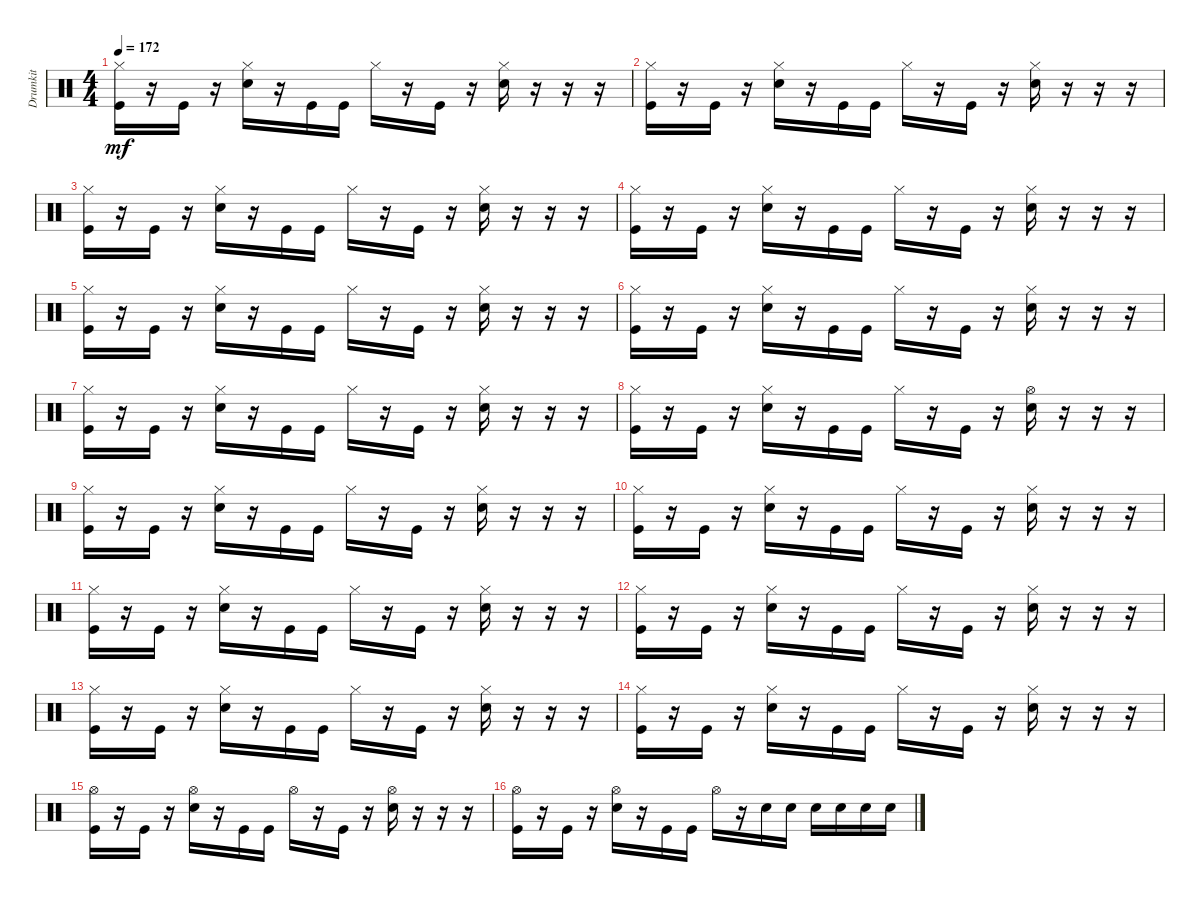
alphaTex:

\track ("Drumkit" "Drumkit") {instrument percussion}
\staff {score}
\articulation defaults
\ts (4 4)
\tempo 172
\clef neutral
\ks c
("Hi-Hat (closed)" "Kick (hit)").16{dy mf} r.16 "Kick (hit)".16 r.16 ("Hi-Hat (closed)" "Snare (hit) 2").16 r.16 "Kick (hit)".16 "Kick (hit)".16 "Hi-Hat (closed)".16 r.16 "Kick (hit)".16 r.16 ("Hi-Hat (closed)" "Snare (hit) 2").16 r.16 r.16 r.16 |
("Hi-Hat (closed)" "Kick (hit)").16 r.16 "Kick (hit)".16 r.16 ("Hi-Hat (closed)" "Snare (hit) 2").16 r.16 "Kick (hit)".16 "Kick (hit)".16 "Hi-Hat (closed)".16 r.16 "Kick (hit)".16 r.16 ("Hi-Hat (closed)" "Snare (hit) 2").16 r.16 r.16 r.16 |
("Hi-Hat (closed)" "Kick (hit)").16 r.16 "Kick (hit)".16 r.16 ("Hi-Hat (closed)" "Snare (hit) 2").16 r.16 "Kick (hit)".16 "Kick (hit)".16 "Hi-Hat (closed)".16 r.16 "Kick (hit)".16 r.16 ("Hi-Hat (closed)" "Snare (hit) 2").16 r.16 r.16 r.16 |
("Hi-Hat (closed)" "Kick (hit)").16 r.16 "Kick (hit)".16 r.16 ("Hi-Hat (closed)" "Snare (hit) 2").16 r.16 "Kick (hit)".16 "Kick (hit)".16 "Hi-Hat (closed)".16 r.16 "Kick (hit)".16 r.16 ("Hi-Hat (closed)" "Snare (hit) 2").16 r.16 r.16 r.16 |
("Hi-Hat (closed)" "Kick (hit)").16 r.16 "Kick (hit)".16 r.16 ("Hi-Hat (closed)" "Snare (hit) 2").16 r.16 "Kick (hit)".16 "Kick (hit)".16 "Hi-Hat (closed)".16 r.16 "Kick (hit)".16 r.16 ("Hi-Hat (closed)" "Snare (hit) 2").16 r.16 r.16 r.16 |
("Hi-Hat (closed)" "Kick (hit)").16 r.16 "Kick (hit)".16 r.16 ("Hi-Hat (closed)" "Snare (hit) 2").16 r.16 "Kick (hit)".16 "Kick (hit)".16 "Hi-Hat (closed)".16 r.16 "Kick (hit)".16 r.16 ("Hi-Hat (closed)" "Snare (hit) 2").16 r.16 r.16 r.16 |
("Hi-Hat (closed)" "Kick (hit)").16 r.16 "Kick (hit)".16 r.16 ("Hi-Hat (closed)" "Snare (hit) 2").16 r.16 "Kick (hit)".16 "Kick (hit)".16 "Hi-Hat (closed)".16 r.16 "Kick (hit)".16 r.16 ("Hi-Hat (closed)" "Snare (hit) 2").16 r.16 r.16 r.16 |
("Hi-Hat (closed)" "Kick (hit)").16 r.16 "Kick (hit)".16 r.16 ("Hi-Hat (closed)" "Snare (hit) 2").16 r.16 "Kick (hit)".16 "Kick (hit)".16 "Hi-Hat (closed)".16 r.16 "Kick (hit)".16 r.16 ("Hi-Hat (open)" "Snare (hit) 2").16 r.16 r.16 r.16 |
("Hi-Hat (closed)" "Kick (hit)").16 r.16 "Kick (hit)".16 r.16 ("Hi-Hat (closed)" "Snare (hit) 2").16 r.16 "Kick (hit)".16 "Kick (hit)".16 "Hi-Hat (closed)".16 r.16 "Kick (hit)".16 r.16 ("Hi-Hat (closed)" "Snare (hit) 2").16 r.16 r.16 r.16 |
("Hi-Hat (closed)" "Kick (hit)").16 r.16 "Kick (hit)".16 r.16 ("Hi-Hat (closed)" "Snare (hit) 2").16 r.16 "Kick (hit)".16 "Kick (hit)".16 "Hi-Hat (closed)".16 r.16 "Kick (hit)".16 r.16 ("Hi-Hat (closed)" "Snare (hit) 2").16 r.16 r.16 r.16 |
("Hi-Hat (closed)" "Kick (hit)").16 r.16 "Kick (hit)".16 r.16 ("Hi-Hat (closed)" "Snare (hit) 2").16 r.16 "Kick (hit)".16 "Kick (hit)".16 "Hi-Hat (closed)".16 r.16 "Kick (hit)".16 r.16 ("Hi-Hat (closed)" "Snare (hit) 2").16 r.16 r.16 r.16 |
("Hi-Hat (closed)" "Kick (hit)").16 r.16 "Kick (hit)".16 r.16 ("Hi-Hat (closed)" "Snare (hit) 2").16 r.16 "Kick (hit)".16 "Kick (hit)".16 "Hi-Hat (closed)".16 r.16 "Kick (hit)".16 r.16 ("Hi-Hat (closed)" "Snare (hit) 2").16 r.16 r.16 r.16 |
("Hi-Hat (closed)" "Kick (hit)").16 r.16 "Kick (hit)".16 r.16 ("Hi-Hat (closed)" "Snare (hit) 2").16 r.16 "Kick (hit)".16 "Kick (hit)".16 "Hi-Hat (closed)".16 r.16 "Kick (hit)".16 r.16 ("Hi-Hat (closed)" "Snare (hit) 2").16 r.16 r.16 r.16 |
("Hi-Hat (closed)" "Kick (hit)").16 r.16 "Kick (hit)".16 r.16 ("Hi-Hat (closed)" "Snare (hit) 2").16 r.16 "Kick (hit)".16 "Kick (hit)".16 "Hi-Hat (closed)".16 r.16 "Kick (hit)".16 r.16 ("Hi-Hat (closed)" "Snare (hit) 2").16 r.16 r.16 r.16 |
("Kick (hit)" "Hi-Hat (open)").16 r.16 "Kick (hit)".16 r.16 ("Hi-Hat (open)" "Snare (hit) 2").16 r.16 "Kick (hit)".16 "Kick (hit)".16 "Hi-Hat (open)".16 r.16 "Kick (hit)".16 r.16 ("Hi-Hat (open)" "Snare (hit) 2").16 r.16 r.16 r.16 |
("Hi-Hat (open)" "Kick (hit)").16 r.16 "Kick (hit)".16 r.16 ("Hi-Hat (open)" "Snare (hit) 2").16 r.16 "Kick (hit)".16 "Kick (hit)".16 "Hi-Hat (open)".16 r.16 "Snare (hit) 2".16 "Snare (hit) 2".16 "Snare (hit) 2".16 "Snare (hit) 2".16 "Snare (hit) 2".16 "Snare (hit) 2".16
